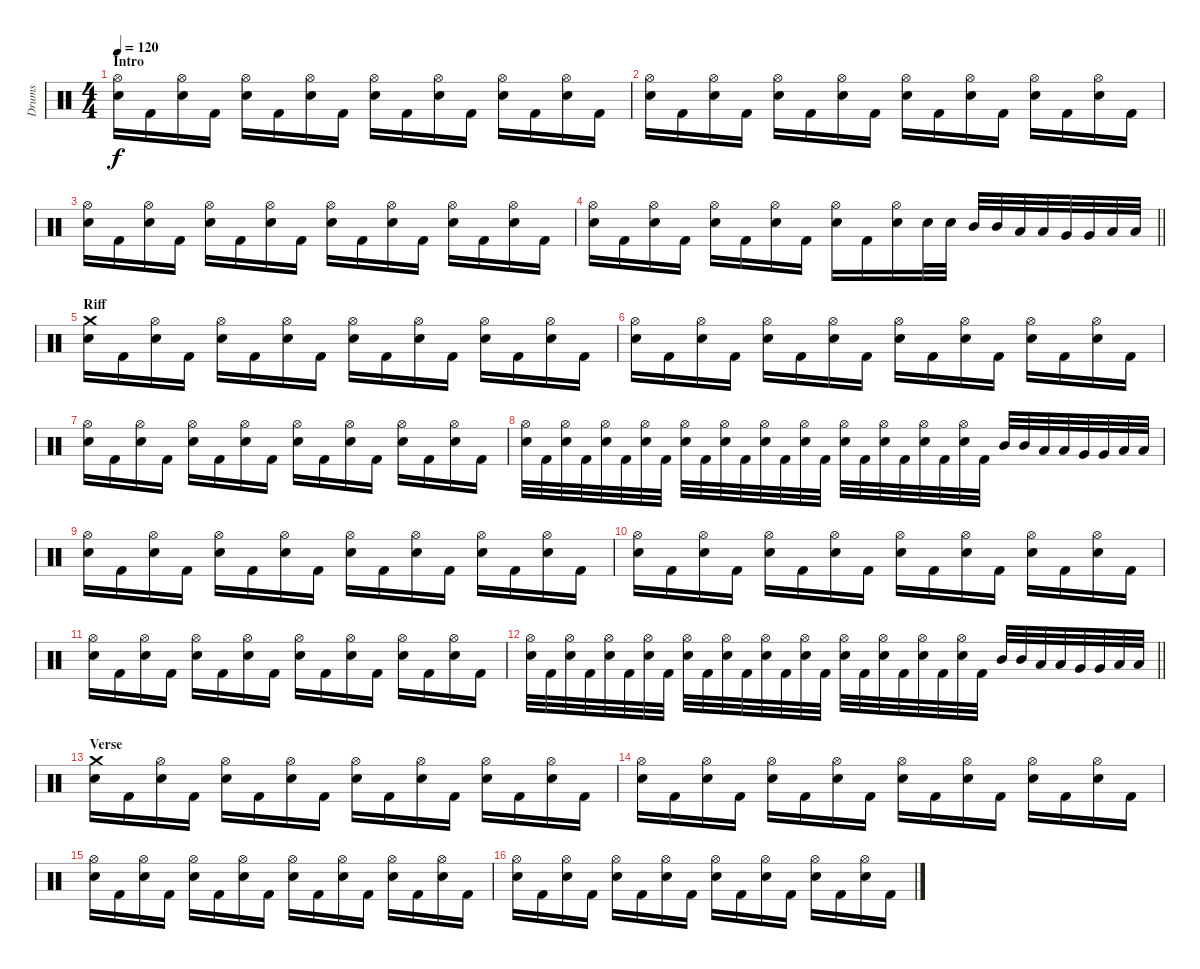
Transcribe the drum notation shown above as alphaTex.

\track ("Drums" "Drums") {instrument percussion}
\staff {score}
\articulation defaults
\ts (4 4)
\section ("" "Intro")
\tempo 120
\clef neutral
\ks c
("Hi-Hat (open)" "Electric Snare (hit)").16{dy f} "Kick (hit) 2".16 ("Hi-Hat (open)" "Electric Snare (hit)").16 "Kick (hit) 2".16 ("Hi-Hat (open)" "Electric Snare (hit)").16 "Kick (hit) 2".16 ("Hi-Hat (open)" "Electric Snare (hit)").16 "Kick (hit) 2".16 ("Hi-Hat (open)" "Electric Snare (hit)").16 "Kick (hit) 2".16 ("Hi-Hat (open)" "Electric Snare (hit)").16 "Kick (hit) 2".16 ("Hi-Hat (open)" "Electric Snare (hit)").16 "Kick (hit) 2".16 ("Hi-Hat (open)" "Electric Snare (hit)").16 "Kick (hit) 2".16 |
("Hi-Hat (open)" "Electric Snare (hit)").16 "Kick (hit) 2".16 ("Hi-Hat (open)" "Electric Snare (hit)").16 "Kick (hit) 2".16 ("Hi-Hat (open)" "Electric Snare (hit)").16 "Kick (hit) 2".16 ("Hi-Hat (open)" "Electric Snare (hit)").16 "Kick (hit) 2".16 ("Hi-Hat (open)" "Electric Snare (hit)").16 "Kick (hit) 2".16 ("Hi-Hat (open)" "Electric Snare (hit)").16 "Kick (hit) 2".16 ("Hi-Hat (open)" "Electric Snare (hit)").16 "Kick (hit) 2".16 ("Hi-Hat (open)" "Electric Snare (hit)").16 "Kick (hit) 2".16 |
("Hi-Hat (open)" "Electric Snare (hit)").16 "Kick (hit) 2".16 ("Hi-Hat (open)" "Electric Snare (hit)").16 "Kick (hit) 2".16 ("Hi-Hat (open)" "Electric Snare (hit)").16 "Kick (hit) 2".16 ("Hi-Hat (open)" "Electric Snare (hit)").16 "Kick (hit) 2".16 ("Hi-Hat (open)" "Electric Snare (hit)").16 "Kick (hit) 2".16 ("Hi-Hat (open)" "Electric Snare (hit)").16 "Kick (hit) 2".16 ("Hi-Hat (open)" "Electric Snare (hit)").16 "Kick (hit) 2".16 ("Hi-Hat (open)" "Electric Snare (hit)").16 "Kick (hit) 2".16 |
\barLineRight lightlight
("Hi-Hat (open)" "Electric Snare (hit)").16 "Kick (hit) 2".16 ("Hi-Hat (open)" "Electric Snare (hit)").16 "Kick (hit) 2".16 ("Hi-Hat (open)" "Electric Snare (hit)").16 "Kick (hit) 2".16 ("Hi-Hat (open)" "Electric Snare (hit)").16 "Kick (hit) 2".16 ("Hi-Hat (open)" "Electric Snare (hit)").16 "Kick (hit) 2".16 ("Hi-Hat (open)" "Electric Snare (hit)").16 "Electric Snare (hit)".32 "Electric Snare (hit)".32 "Mid Tom (hit)".32 "Mid Tom (hit)".32 "Low Tom (hit)".32 "Low Tom (hit)".32 "Very Low Tom (hit)".32 "Very Low Tom (hit)".32 "Low Floor Tom (hit)".32 "Low Floor Tom (hit)".32 |
\section ("" "Riff")
("Crash medium (hit)" "Electric Snare (hit)").16 "Kick (hit) 2".16 ("Hi-Hat (open)" "Electric Snare (hit)").16 "Kick (hit) 2".16 ("Hi-Hat (open)" "Electric Snare (hit)").16 "Kick (hit) 2".16 ("Hi-Hat (open)" "Electric Snare (hit)").16 "Kick (hit) 2".16 ("Hi-Hat (open)" "Electric Snare (hit)").16 "Kick (hit) 2".16 ("Hi-Hat (open)" "Electric Snare (hit)").16 "Kick (hit) 2".16 ("Hi-Hat (open)" "Electric Snare (hit)").16 "Kick (hit) 2".16 ("Hi-Hat (open)" "Electric Snare (hit)").16 "Kick (hit) 2".16 |
("Hi-Hat (open)" "Electric Snare (hit)").16 "Kick (hit) 2".16 ("Hi-Hat (open)" "Electric Snare (hit)").16 "Kick (hit) 2".16 ("Hi-Hat (open)" "Electric Snare (hit)").16 "Kick (hit) 2".16 ("Hi-Hat (open)" "Electric Snare (hit)").16 "Kick (hit) 2".16 ("Hi-Hat (open)" "Electric Snare (hit)").16 "Kick (hit) 2".16 ("Hi-Hat (open)" "Electric Snare (hit)").16 "Kick (hit) 2".16 ("Hi-Hat (open)" "Electric Snare (hit)").16 "Kick (hit) 2".16 ("Hi-Hat (open)" "Electric Snare (hit)").16 "Kick (hit) 2".16 |
("Hi-Hat (open)" "Electric Snare (hit)").16 "Kick (hit) 2".16 ("Hi-Hat (open)" "Electric Snare (hit)").16 "Kick (hit) 2".16 ("Hi-Hat (open)" "Electric Snare (hit)").16 "Kick (hit) 2".16 ("Hi-Hat (open)" "Electric Snare (hit)").16 "Kick (hit) 2".16 ("Hi-Hat (open)" "Electric Snare (hit)").16 "Kick (hit) 2".16 ("Hi-Hat (open)" "Electric Snare (hit)").16 "Kick (hit) 2".16 ("Hi-Hat (open)" "Electric Snare (hit)").16 "Kick (hit) 2".16 ("Hi-Hat (open)" "Electric Snare (hit)").16 "Kick (hit) 2".16 |
("Hi-Hat (open)" "Electric Snare (hit)").32 "Kick (hit) 2".32 ("Hi-Hat (open)" "Electric Snare (hit)").32 "Kick (hit) 2".32 ("Hi-Hat (open)" "Electric Snare (hit)").32 "Kick (hit) 2".32 ("Hi-Hat (open)" "Electric Snare (hit)").32 "Kick (hit) 2".32 ("Hi-Hat (open)" "Electric Snare (hit)").32 "Kick (hit) 2".32 ("Hi-Hat (open)" "Electric Snare (hit)").32 "Kick (hit) 2".32 ("Hi-Hat (open)" "Electric Snare (hit)").32 "Kick (hit) 2".32 ("Hi-Hat (open)" "Electric Snare (hit)").32 "Kick (hit) 2".32 ("Hi-Hat (open)" "Electric Snare (hit)").32 "Kick (hit) 2".32 ("Hi-Hat (open)" "Electric Snare (hit)").32 "Kick (hit) 2".32 ("Hi-Hat (open)" "Electric Snare (hit)").32 "Kick (hit) 2".32 ("Hi-Hat (open)" "Electric Snare (hit)").32 "Kick (hit) 2".32 "Mid Tom (hit)".32 "Mid Tom (hit)".32 "Low Tom (hit)".32 "Low Tom (hit)".32 "Very Low Tom (hit)".32 "Very Low Tom (hit)".32 "Low Floor Tom (hit)".32 "Low Floor Tom (hit)".32 |
("Hi-Hat (open)" "Electric Snare (hit)").16 "Kick (hit) 2".16 ("Hi-Hat (open)" "Electric Snare (hit)").16 "Kick (hit) 2".16 ("Hi-Hat (open)" "Electric Snare (hit)").16 "Kick (hit) 2".16 ("Hi-Hat (open)" "Electric Snare (hit)").16 "Kick (hit) 2".16 ("Hi-Hat (open)" "Electric Snare (hit)").16 "Kick (hit) 2".16 ("Hi-Hat (open)" "Electric Snare (hit)").16 "Kick (hit) 2".16 ("Hi-Hat (open)" "Electric Snare (hit)").16 "Kick (hit) 2".16 ("Hi-Hat (open)" "Electric Snare (hit)").16 "Kick (hit) 2".16 |
("Hi-Hat (open)" "Electric Snare (hit)").16 "Kick (hit) 2".16 ("Hi-Hat (open)" "Electric Snare (hit)").16 "Kick (hit) 2".16 ("Hi-Hat (open)" "Electric Snare (hit)").16 "Kick (hit) 2".16 ("Hi-Hat (open)" "Electric Snare (hit)").16 "Kick (hit) 2".16 ("Hi-Hat (open)" "Electric Snare (hit)").16 "Kick (hit) 2".16 ("Hi-Hat (open)" "Electric Snare (hit)").16 "Kick (hit) 2".16 ("Hi-Hat (open)" "Electric Snare (hit)").16 "Kick (hit) 2".16 ("Hi-Hat (open)" "Electric Snare (hit)").16 "Kick (hit) 2".16 |
("Hi-Hat (open)" "Electric Snare (hit)").16 "Kick (hit) 2".16 ("Hi-Hat (open)" "Electric Snare (hit)").16 "Kick (hit) 2".16 ("Hi-Hat (open)" "Electric Snare (hit)").16 "Kick (hit) 2".16 ("Hi-Hat (open)" "Electric Snare (hit)").16 "Kick (hit) 2".16 ("Hi-Hat (open)" "Electric Snare (hit)").16 "Kick (hit) 2".16 ("Hi-Hat (open)" "Electric Snare (hit)").16 "Kick (hit) 2".16 ("Hi-Hat (open)" "Electric Snare (hit)").16 "Kick (hit) 2".16 ("Hi-Hat (open)" "Electric Snare (hit)").16 "Kick (hit) 2".16 |
\barLineRight lightlight
("Hi-Hat (open)" "Electric Snare (hit)").32 "Kick (hit) 2".32 ("Hi-Hat (open)" "Electric Snare (hit)").32 "Kick (hit) 2".32 ("Hi-Hat (open)" "Electric Snare (hit)").32 "Kick (hit) 2".32 ("Hi-Hat (open)" "Electric Snare (hit)").32 "Kick (hit) 2".32 ("Hi-Hat (open)" "Electric Snare (hit)").32 "Kick (hit) 2".32 ("Hi-Hat (open)" "Electric Snare (hit)").32 "Kick (hit) 2".32 ("Hi-Hat (open)" "Electric Snare (hit)").32 "Kick (hit) 2".32 ("Hi-Hat (open)" "Electric Snare (hit)").32 "Kick (hit) 2".32 ("Hi-Hat (open)" "Electric Snare (hit)").32 "Kick (hit) 2".32 ("Hi-Hat (open)" "Electric Snare (hit)").32 "Kick (hit) 2".32 ("Hi-Hat (open)" "Electric Snare (hit)").32 "Kick (hit) 2".32 ("Hi-Hat (open)" "Electric Snare (hit)").32 "Kick (hit) 2".32 "Mid Tom (hit)".32 "Mid Tom (hit)".32 "Low Tom (hit)".32 "Low Tom (hit)".32 "Very Low Tom (hit)".32 "Very Low Tom (hit)".32 "Low Floor Tom (hit)".32 "Low Floor Tom (hit)".32 |
\section ("" "Verse")
("Crash medium (hit)" "Electric Snare (hit)").16 "Kick (hit) 2".16 ("Hi-Hat (open)" "Electric Snare (hit)").16 "Kick (hit) 2".16 ("Hi-Hat (open)" "Electric Snare (hit)").16 "Kick (hit) 2".16 ("Hi-Hat (open)" "Electric Snare (hit)").16 "Kick (hit) 2".16 ("Hi-Hat (open)" "Electric Snare (hit)").16 "Kick (hit) 2".16 ("Hi-Hat (open)" "Electric Snare (hit)").16 "Kick (hit) 2".16 ("Hi-Hat (open)" "Electric Snare (hit)").16 "Kick (hit) 2".16 ("Hi-Hat (open)" "Electric Snare (hit)").16 "Kick (hit) 2".16 |
("Hi-Hat (open)" "Electric Snare (hit)").16 "Kick (hit) 2".16 ("Hi-Hat (open)" "Electric Snare (hit)").16 "Kick (hit) 2".16 ("Hi-Hat (open)" "Electric Snare (hit)").16 "Kick (hit) 2".16 ("Hi-Hat (open)" "Electric Snare (hit)").16 "Kick (hit) 2".16 ("Hi-Hat (open)" "Electric Snare (hit)").16 "Kick (hit) 2".16 ("Hi-Hat (open)" "Electric Snare (hit)").16 "Kick (hit) 2".16 ("Hi-Hat (open)" "Electric Snare (hit)").16 "Kick (hit) 2".16 ("Hi-Hat (open)" "Electric Snare (hit)").16 "Kick (hit) 2".16 |
("Hi-Hat (open)" "Electric Snare (hit)").16 "Kick (hit) 2".16 ("Hi-Hat (open)" "Electric Snare (hit)").16 "Kick (hit) 2".16 ("Hi-Hat (open)" "Electric Snare (hit)").16 "Kick (hit) 2".16 ("Hi-Hat (open)" "Electric Snare (hit)").16 "Kick (hit) 2".16 ("Hi-Hat (open)" "Electric Snare (hit)").16 "Kick (hit) 2".16 ("Hi-Hat (open)" "Electric Snare (hit)").16 "Kick (hit) 2".16 ("Hi-Hat (open)" "Electric Snare (hit)").16 "Kick (hit) 2".16 ("Hi-Hat (open)" "Electric Snare (hit)").16 "Kick (hit) 2".16 |
("Hi-Hat (open)" "Electric Snare (hit)").16 "Kick (hit) 2".16 ("Hi-Hat (open)" "Electric Snare (hit)").16 "Kick (hit) 2".16 ("Hi-Hat (open)" "Electric Snare (hit)").16 "Kick (hit) 2".16 ("Hi-Hat (open)" "Electric Snare (hit)").16 "Kick (hit) 2".16 ("Hi-Hat (open)" "Electric Snare (hit)").16 "Kick (hit) 2".16 ("Hi-Hat (open)" "Electric Snare (hit)").16 "Kick (hit) 2".16 ("Hi-Hat (open)" "Electric Snare (hit)").16 "Kick (hit) 2".16 ("Hi-Hat (open)" "Electric Snare (hit)").16 "Kick (hit) 2".16
